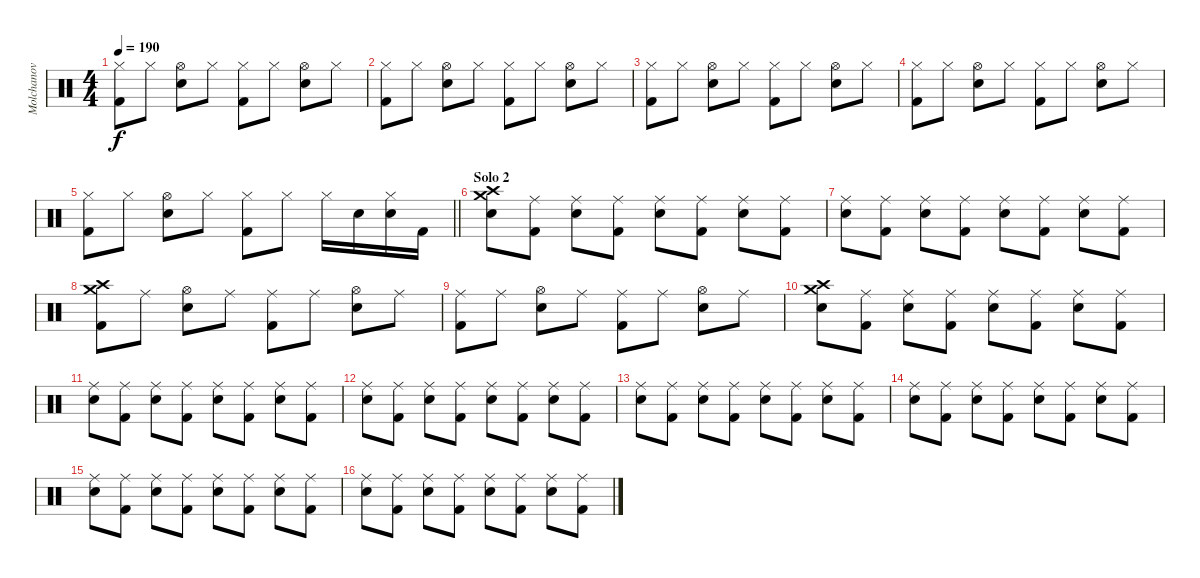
\track ("Molchanov" "Molchanov") {instrument percussion}
\staff {score}
\articulation defaults
\ts (4 4)
\tempo 190
\clef neutral
\ks c
("Hi-Hat (closed)" "Kick (hit) 2").8{dy f} "Hi-Hat (closed)".8 ("Hi-Hat (open)" "Snare (hit) 2").8 "Hi-Hat (closed)".8 ("Hi-Hat (closed)" "Kick (hit) 2").8 "Hi-Hat (closed)".8 ("Hi-Hat (open)" "Snare (hit) 2").8 "Hi-Hat (closed)".8 |
("Hi-Hat (closed)" "Kick (hit) 2").8 "Hi-Hat (closed)".8 ("Hi-Hat (open)" "Snare (hit) 2").8 "Hi-Hat (closed)".8 ("Hi-Hat (closed)" "Kick (hit) 2").8 "Hi-Hat (closed)".8 ("Hi-Hat (open)" "Snare (hit) 2").8 "Hi-Hat (closed)".8 |
("Hi-Hat (closed)" "Kick (hit) 2").8 "Hi-Hat (closed)".8 ("Hi-Hat (open)" "Snare (hit) 2").8 "Hi-Hat (closed)".8 ("Hi-Hat (closed)" "Kick (hit) 2").8 "Hi-Hat (closed)".8 ("Hi-Hat (open)" "Snare (hit) 2").8 "Hi-Hat (closed)".8 |
("Hi-Hat (closed)" "Kick (hit) 2").8 "Hi-Hat (closed)".8 ("Hi-Hat (open)" "Snare (hit) 2").8 "Hi-Hat (closed)".8 ("Hi-Hat (closed)" "Kick (hit) 2").8 "Hi-Hat (closed)".8 ("Hi-Hat (open)" "Snare (hit) 2").8 "Hi-Hat (closed)".8 |
\barLineRight lightlight
("Hi-Hat (closed)" "Kick (hit) 2").8 "Hi-Hat (closed)".8 ("Hi-Hat (open)" "Snare (hit) 2").8 "Hi-Hat (closed)".8 ("Hi-Hat (closed)" "Kick (hit) 2").8 "Hi-Hat (closed)".8 "Hi-Hat (closed)".16 "Snare (hit) 2".16 ("Hi-Hat (closed)" "Snare (hit) 2").16 "Kick (hit) 2".16 |
\section ("" "Solo 2")
("Crash high (hit)" "Snare (hit) 2" "Crash medium (hit)").8 ("Ride (middle)" "Kick (hit) 2").8 ("Ride (middle)" "Snare (hit) 2").8 ("Ride (middle)" "Kick (hit) 2").8 ("Ride (middle)" "Snare (hit) 2").8 ("Ride (middle)" "Kick (hit) 2").8 ("Ride (middle)" "Snare (hit) 2").8 ("Ride (middle)" "Kick (hit) 2").8 |
("Ride (middle)" "Snare (hit) 2").8 ("Ride (middle)" "Kick (hit) 2").8 ("Ride (middle)" "Snare (hit) 2").8 ("Ride (middle)" "Kick (hit) 2").8 ("Ride (middle)" "Snare (hit) 2").8 ("Ride (middle)" "Kick (hit) 2").8 ("Ride (middle)" "Snare (hit) 2").8 ("Ride (middle)" "Kick (hit) 2").8 |
("Crash high (hit)" "Crash medium (hit)" "Kick (hit) 2").8 "Ride (middle)".8 ("Hi-Hat (open)" "Snare (hit) 2").8 "Ride (middle)".8 ("Ride (middle)" "Kick (hit) 2").8 "Ride (middle)".8 ("Hi-Hat (open)" "Snare (hit) 2").8 "Ride (middle)".8 |
("Ride (middle)" "Kick (hit) 2").8 "Ride (middle)".8 ("Hi-Hat (open)" "Snare (hit) 2").8 "Ride (middle)".8 ("Ride (middle)" "Kick (hit) 2").8 "Ride (middle)".8 ("Hi-Hat (open)" "Snare (hit) 2").8 "Ride (middle)".8 |
("Crash high (hit)" "Snare (hit) 2" "Crash medium (hit)").8 ("Ride (middle)" "Kick (hit) 2").8 ("Ride (middle)" "Snare (hit) 2").8 ("Ride (middle)" "Kick (hit) 2").8 ("Ride (middle)" "Snare (hit) 2").8 ("Ride (middle)" "Kick (hit) 2").8 ("Ride (middle)" "Snare (hit) 2").8 ("Ride (middle)" "Kick (hit) 2").8 |
("Ride (middle)" "Snare (hit) 2").8 ("Ride (middle)" "Kick (hit) 2").8 ("Ride (middle)" "Snare (hit) 2").8 ("Ride (middle)" "Kick (hit) 2").8 ("Ride (middle)" "Snare (hit) 2").8 ("Ride (middle)" "Kick (hit) 2").8 ("Ride (middle)" "Snare (hit) 2").8 ("Ride (middle)" "Kick (hit) 2").8 |
("Ride (middle)" "Snare (hit) 2").8 ("Ride (middle)" "Kick (hit) 2").8 ("Ride (middle)" "Snare (hit) 2").8 ("Ride (middle)" "Kick (hit) 2").8 ("Ride (middle)" "Snare (hit) 2").8 ("Ride (middle)" "Kick (hit) 2").8 ("Ride (middle)" "Snare (hit) 2").8 ("Ride (middle)" "Kick (hit) 2").8 |
("Ride (middle)" "Snare (hit) 2").8 ("Ride (middle)" "Kick (hit) 2").8 ("Ride (middle)" "Snare (hit) 2").8 ("Ride (middle)" "Kick (hit) 2").8 ("Ride (middle)" "Snare (hit) 2").8 ("Ride (middle)" "Kick (hit) 2").8 ("Ride (middle)" "Snare (hit) 2").8 ("Ride (middle)" "Kick (hit) 2").8 |
("Ride (middle)" "Snare (hit) 2").8 ("Ride (middle)" "Kick (hit) 2").8 ("Ride (middle)" "Snare (hit) 2").8 ("Ride (middle)" "Kick (hit) 2").8 ("Ride (middle)" "Snare (hit) 2").8 ("Ride (middle)" "Kick (hit) 2").8 ("Ride (middle)" "Snare (hit) 2").8 ("Ride (middle)" "Kick (hit) 2").8 |
("Ride (middle)" "Snare (hit) 2").8 ("Ride (middle)" "Kick (hit) 2").8 ("Ride (middle)" "Snare (hit) 2").8 ("Ride (middle)" "Kick (hit) 2").8 ("Ride (middle)" "Snare (hit) 2").8 ("Ride (middle)" "Kick (hit) 2").8 ("Ride (middle)" "Snare (hit) 2").8 ("Ride (middle)" "Kick (hit) 2").8 |
("Ride (middle)" "Snare (hit) 2").8 ("Ride (middle)" "Kick (hit) 2").8 ("Ride (middle)" "Snare (hit) 2").8 ("Ride (middle)" "Kick (hit) 2").8 ("Ride (middle)" "Snare (hit) 2").8 ("Ride (middle)" "Kick (hit) 2").8 ("Ride (middle)" "Snare (hit) 2").8 ("Ride (middle)" "Kick (hit) 2").8
